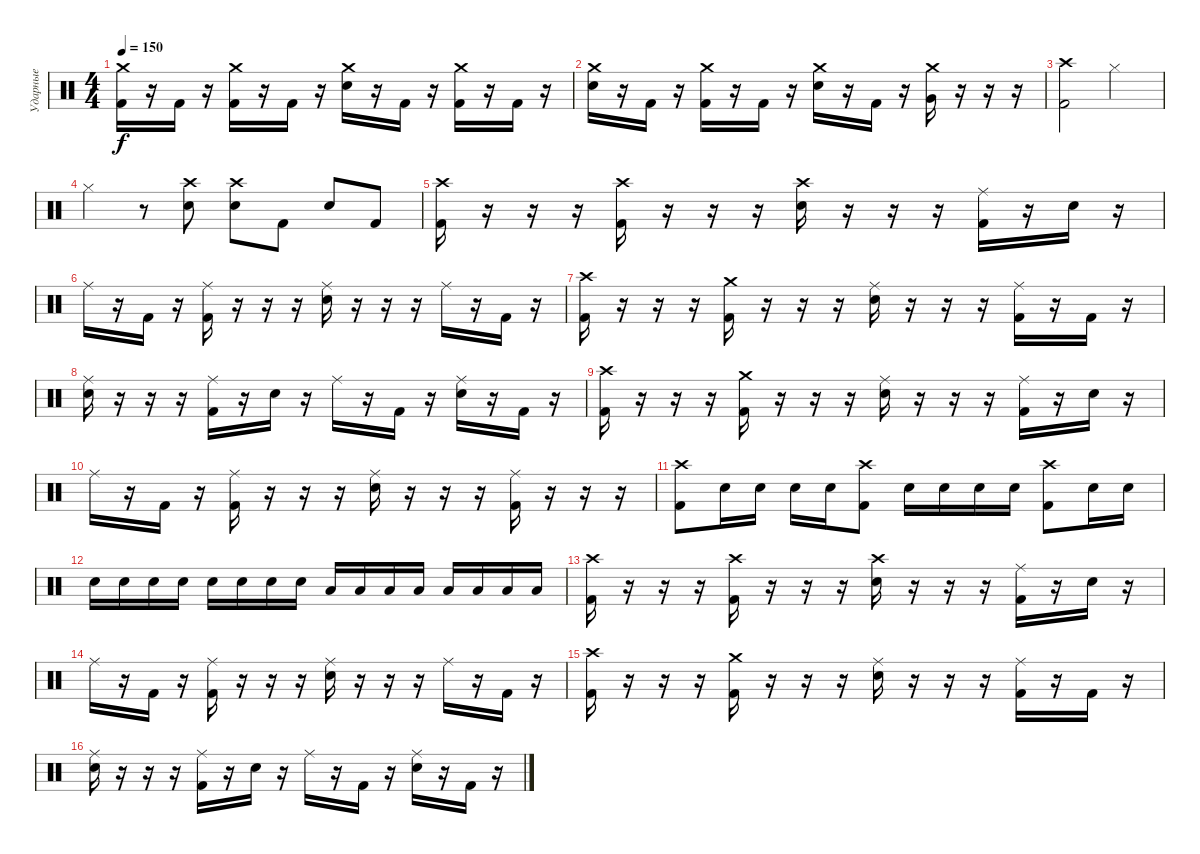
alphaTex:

\track ("Ударные" "Ударные") {instrument percussion}
\staff {score}
\articulation defaults
\ts (4 4)
\tempo 150
\clef neutral
\ks c
("Crash medium (hit)" "Kick (hit) 2").16{dy f} r.16 "Kick (hit) 2".16 r.16 ("Crash medium (hit)" "Kick (hit) 2").16 r.16 "Kick (hit) 2".16 r.16 ("Crash medium (hit)" "Electric Snare (hit)").16 r.16 "Kick (hit) 2".16 r.16 ("Crash medium (hit)" "Kick (hit) 2").16 r.16 "Kick (hit) 2".16 r.16 |
("Crash medium (hit)" "Electric Snare (hit)").16 r.16 "Kick (hit) 2".16 r.16 ("Crash medium (hit)" "Kick (hit) 2").16 r.16 "Kick (hit) 2".16 r.16 ("Crash medium (hit)" "Electric Snare (hit)").16 r.16 "Kick (hit) 2".16 r.16 ("Crash medium (hit)" "Very Low Tom (hit)").16 r.16 r.16 r.16 |
("Crash high (hit)" "Kick (hit) 2").2 "Hi-Hat (closed)".2 |
"Hi-Hat (closed)".4 r.8 ("Crash high (hit)" "Electric Snare (hit)").8 ("Crash high (hit)" "Electric Snare (hit)").8 "Kick (hit) 2".8 "Electric Snare (hit)".8 "Kick (hit) 2".8 |
("Crash high (hit)" "Kick (hit) 2").16 r.16 r.16 r.16 ("Crash high (hit)" "Kick (hit) 2").16 r.16 r.16 r.16 ("Crash high (hit)" "Electric Snare (hit)").16 r.16 r.16 r.16 ("Ride (middle)" "Kick (hit) 2").16 r.16 "Electric Snare (hit)".16 r.16 |
"Ride (middle)".16 r.16 "Kick (hit) 2".16 r.16 ("Ride (middle)" "Kick (hit) 2").16 r.16 r.16 r.16 ("Ride (middle)" "Electric Snare (hit)").16 r.16 r.16 r.16 "Ride (middle)".16 r.16 "Kick (hit) 2".16 r.16 |
("Crash high (hit)" "Kick (hit) 2").16 r.16 r.16 r.16 ("Crash medium (hit)" "Kick (hit) 2").16 r.16 r.16 r.16 ("Ride (middle)" "Electric Snare (hit)").16 r.16 r.16 r.16 ("Ride (middle)" "Kick (hit) 2").16 r.16 "Kick (hit) 2".16 r.16 |
("Ride (middle)" "Electric Snare (hit)").16 r.16 r.16 r.16 ("Ride (middle)" "Kick (hit) 2").16 r.16 "Electric Snare (hit)".16 r.16 "Ride (middle)".16 r.16 "Kick (hit) 2".16 r.16 ("Ride (middle)" "Electric Snare (hit)").16 r.16 "Kick (hit) 2".16 r.16 |
("Crash high (hit)" "Kick (hit) 2").16 r.16 r.16 r.16 ("Crash medium (hit)" "Kick (hit) 2").16 r.16 r.16 r.16 ("Ride (middle)" "Electric Snare (hit)").16 r.16 r.16 r.16 ("Ride (middle)" "Kick (hit) 2").16 r.16 "Electric Snare (hit)".16 r.16 |
"Ride (middle)".16 r.16 "Kick (hit) 2".16 r.16 ("Ride (middle)" "Kick (hit) 2").16 r.16 r.16 r.16 ("Ride (middle)" "Electric Snare (hit)").16 r.16 r.16 r.16 ("Ride (middle)" "Kick (hit) 2").16 r.16 r.16 r.16 |
("Crash high (hit)" "Kick (hit) 2").8 "Electric Snare (hit)".16 "Electric Snare (hit)".16 "Electric Snare (hit)".16 "Electric Snare (hit)".16 ("Crash high (hit)" "Kick (hit) 2").8 "Electric Snare (hit)".16 "Electric Snare (hit)".16 "Electric Snare (hit)".16 "Electric Snare (hit)".16 ("Crash high (hit)" "Kick (hit) 2").8 "Electric Snare (hit)".16 "Electric Snare (hit)".16 |
"Electric Snare (hit)".16 "Electric Snare (hit)".16 "Electric Snare (hit)".16 "Electric Snare (hit)".16 "Electric Snare (hit)".16 "Electric Snare (hit)".16 "Electric Snare (hit)".16 "Electric Snare (hit)".16 "Low Tom (hit)".16 "Low Tom (hit)".16 "Low Tom (hit)".16 "Low Tom (hit)".16 "Low Floor Tom (hit)".16 "Low Floor Tom (hit)".16 "Low Floor Tom (hit)".16 "Low Floor Tom (hit)".16 |
("Crash high (hit)" "Kick (hit) 2").16 r.16 r.16 r.16 ("Crash high (hit)" "Kick (hit) 2").16 r.16 r.16 r.16 ("Crash high (hit)" "Electric Snare (hit)").16 r.16 r.16 r.16 ("Ride (middle)" "Kick (hit) 2").16 r.16 "Electric Snare (hit)".16 r.16 |
"Ride (middle)".16 r.16 "Kick (hit) 2".16 r.16 ("Ride (middle)" "Kick (hit) 2").16 r.16 r.16 r.16 ("Ride (middle)" "Electric Snare (hit)").16 r.16 r.16 r.16 "Ride (middle)".16 r.16 "Kick (hit) 2".16 r.16 |
("Crash high (hit)" "Kick (hit) 2").16 r.16 r.16 r.16 ("Crash medium (hit)" "Kick (hit) 2").16 r.16 r.16 r.16 ("Ride (middle)" "Electric Snare (hit)").16 r.16 r.16 r.16 ("Ride (middle)" "Kick (hit) 2").16 r.16 "Kick (hit) 2".16 r.16 |
("Ride (middle)" "Electric Snare (hit)").16 r.16 r.16 r.16 ("Ride (middle)" "Kick (hit) 2").16 r.16 "Electric Snare (hit)".16 r.16 "Ride (middle)".16 r.16 "Kick (hit) 2".16 r.16 ("Ride (middle)" "Electric Snare (hit)").16 r.16 "Kick (hit) 2".16 r.16
